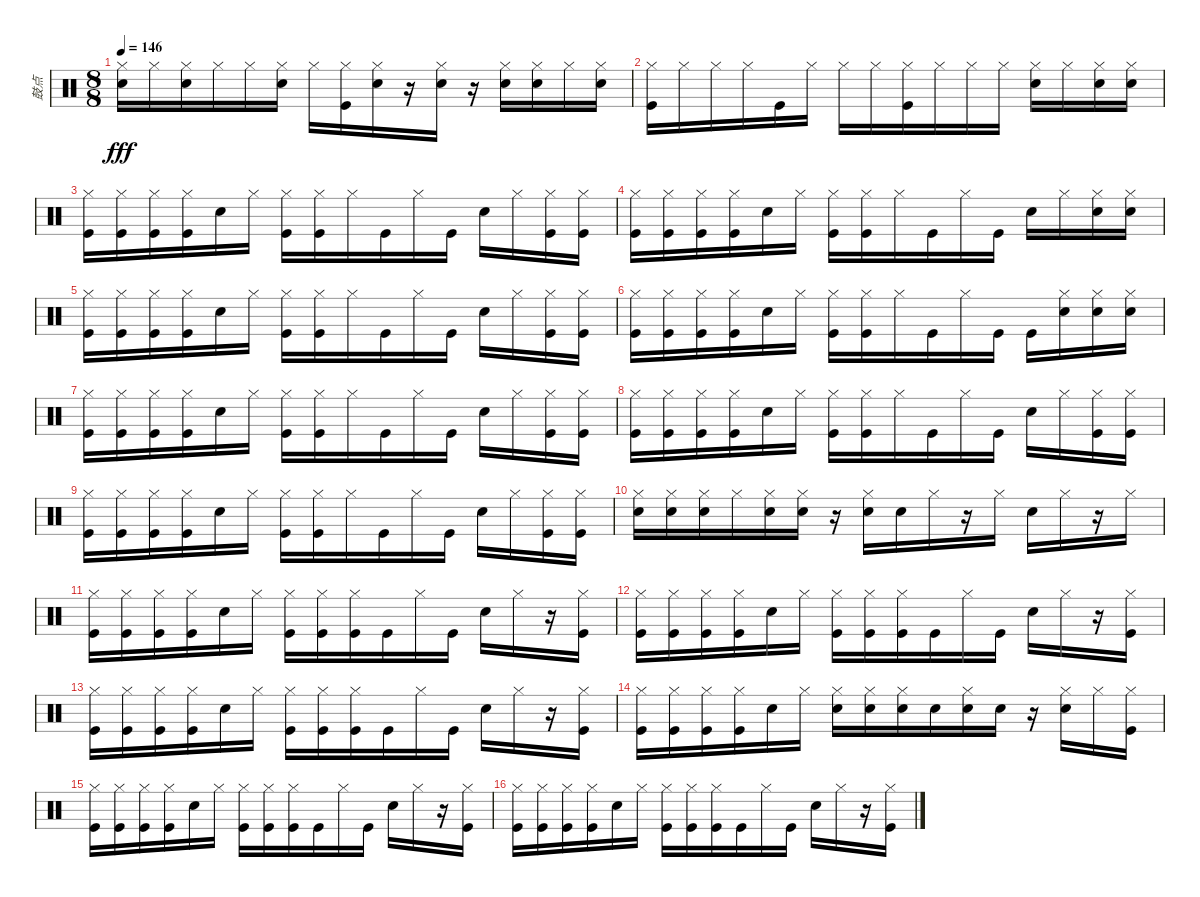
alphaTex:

\track ("鼓点" "鼓点") {instrument percussion}
\staff {score}
\articulation defaults
\ts (8 8)
\tempo 146
\clef neutral
\ks c
("Snare (hit) 2" "Hi-Hat (closed)").16{dy fff} "Hi-Hat (closed)".16 ("Snare (hit) 2" "Hi-Hat (closed)").16 "Hi-Hat (closed)".16 "Hi-Hat (closed)".16 ("Snare (hit) 2" "Hi-Hat (closed)").16 "Hi-Hat (closed)".16 ("Kick (hit)" "Hi-Hat (closed)").16 ("Snare (hit) 2" "Hi-Hat (closed)").16 r.16 ("Snare (hit) 2" "Hi-Hat (closed)").16 r.16 ("Snare (hit) 2" "Hi-Hat (closed)").16 ("Snare (hit) 2" "Hi-Hat (closed)").16 "Hi-Hat (closed)".16 ("Snare (hit) 2" "Hi-Hat (closed)").16 |
("Kick (hit)" "Hi-Hat (closed)").16 "Hi-Hat (closed)".16 "Hi-Hat (closed)".16 "Hi-Hat (closed)".16 "Kick (hit)".16 "Hi-Hat (closed)".16 "Hi-Hat (closed)".16 "Hi-Hat (closed)".16 ("Kick (hit)" "Hi-Hat (closed)").16 "Hi-Hat (closed)".16 "Hi-Hat (closed)".16 "Hi-Hat (closed)".16 ("Snare (hit) 2" "Hi-Hat (closed)").16 "Hi-Hat (closed)".16 ("Snare (hit) 2" "Hi-Hat (closed)").16 ("Snare (hit) 2" "Hi-Hat (closed)").16 |
("Kick (hit)" "Hi-Hat (closed)").16 ("Kick (hit)" "Hi-Hat (closed)").16 ("Kick (hit)" "Hi-Hat (closed)").16 ("Kick (hit)" "Hi-Hat (closed)").16 "Snare (hit) 2".16 "Hi-Hat (closed)".16 ("Kick (hit)" "Hi-Hat (closed)").16 ("Kick (hit)" "Hi-Hat (closed)").16 "Hi-Hat (closed)".16 "Kick (hit)".16 "Hi-Hat (closed)".16 "Kick (hit)".16 "Snare (hit) 2".16 "Hi-Hat (closed)".16 ("Kick (hit)" "Hi-Hat (closed)").16 ("Kick (hit)" "Hi-Hat (closed)").16 |
("Kick (hit)" "Hi-Hat (closed)").16 ("Kick (hit)" "Hi-Hat (closed)").16 ("Kick (hit)" "Hi-Hat (closed)").16 ("Kick (hit)" "Hi-Hat (closed)").16 "Snare (hit) 2".16 "Hi-Hat (closed)".16 ("Kick (hit)" "Hi-Hat (closed)").16 ("Kick (hit)" "Hi-Hat (closed)").16 "Hi-Hat (closed)".16 "Kick (hit)".16 "Hi-Hat (closed)".16 "Kick (hit)".16 "Snare (hit) 2".16 "Hi-Hat (closed)".16 ("Snare (hit) 2" "Hi-Hat (closed)").16 ("Snare (hit) 2" "Hi-Hat (closed)").16 |
("Kick (hit)" "Hi-Hat (closed)").16 ("Kick (hit)" "Hi-Hat (closed)").16 ("Kick (hit)" "Hi-Hat (closed)").16 ("Kick (hit)" "Hi-Hat (closed)").16 "Snare (hit) 2".16 "Hi-Hat (closed)".16 ("Kick (hit)" "Hi-Hat (closed)").16 ("Kick (hit)" "Hi-Hat (closed)").16 "Hi-Hat (closed)".16 "Kick (hit)".16 "Hi-Hat (closed)".16 "Kick (hit)".16 "Snare (hit) 2".16 "Hi-Hat (closed)".16 ("Kick (hit)" "Hi-Hat (closed)").16 ("Kick (hit)" "Hi-Hat (closed)").16 |
("Kick (hit)" "Hi-Hat (closed)").16 ("Kick (hit)" "Hi-Hat (closed)").16 ("Kick (hit)" "Hi-Hat (closed)").16 ("Kick (hit)" "Hi-Hat (closed)").16 "Snare (hit) 2".16 "Hi-Hat (closed)".16 ("Kick (hit)" "Hi-Hat (closed)").16 ("Kick (hit)" "Hi-Hat (closed)").16 "Hi-Hat (closed)".16 "Kick (hit)".16 "Hi-Hat (closed)".16 "Kick (hit)".16 "Kick (hit)".16 ("Snare (hit) 2" "Hi-Hat (closed)").16 ("Snare (hit) 2" "Hi-Hat (closed)").16 ("Snare (hit) 2" "Hi-Hat (closed)").16 |
("Kick (hit)" "Hi-Hat (closed)").16 ("Kick (hit)" "Hi-Hat (closed)").16 ("Kick (hit)" "Hi-Hat (closed)").16 ("Kick (hit)" "Hi-Hat (closed)").16 "Snare (hit) 2".16 "Hi-Hat (closed)".16 ("Kick (hit)" "Hi-Hat (closed)").16 ("Kick (hit)" "Hi-Hat (closed)").16 "Hi-Hat (closed)".16 "Kick (hit)".16 "Hi-Hat (closed)".16 "Kick (hit)".16 "Snare (hit) 2".16 "Hi-Hat (closed)".16 ("Kick (hit)" "Hi-Hat (closed)").16 ("Kick (hit)" "Hi-Hat (closed)").16 |
("Kick (hit)" "Hi-Hat (closed)").16 ("Kick (hit)" "Hi-Hat (closed)").16 ("Kick (hit)" "Hi-Hat (closed)").16 ("Kick (hit)" "Hi-Hat (closed)").16 "Snare (hit) 2".16 "Hi-Hat (closed)".16 ("Kick (hit)" "Hi-Hat (closed)").16 ("Kick (hit)" "Hi-Hat (closed)").16 "Hi-Hat (closed)".16 "Kick (hit)".16 "Hi-Hat (closed)".16 "Kick (hit)".16 "Snare (hit) 2".16 "Hi-Hat (closed)".16 ("Kick (hit)" "Hi-Hat (closed)").16 ("Kick (hit)" "Hi-Hat (closed)").16 |
("Kick (hit)" "Hi-Hat (closed)").16 ("Kick (hit)" "Hi-Hat (closed)").16 ("Kick (hit)" "Hi-Hat (closed)").16 ("Kick (hit)" "Hi-Hat (closed)").16 "Snare (hit) 2".16 "Hi-Hat (closed)".16 ("Kick (hit)" "Hi-Hat (closed)").16 ("Kick (hit)" "Hi-Hat (closed)").16 "Hi-Hat (closed)".16 "Kick (hit)".16 "Hi-Hat (closed)".16 "Kick (hit)".16 "Snare (hit) 2".16 "Hi-Hat (closed)".16 ("Kick (hit)" "Hi-Hat (closed)").16 ("Kick (hit)" "Hi-Hat (closed)").16 |
("Snare (hit) 2" "Hi-Hat (closed)").16 ("Snare (hit) 2" "Hi-Hat (closed)").16 ("Snare (hit) 2" "Hi-Hat (closed)").16 "Hi-Hat (closed)".16 ("Snare (hit) 2" "Hi-Hat (closed)").16 ("Snare (hit) 2" "Hi-Hat (closed)").16 r.16 ("Snare (hit) 2" "Hi-Hat (closed)").16 "Snare (hit) 2".16 "Hi-Hat (closed)".16 r.16 "Hi-Hat (closed)".16 "Snare (hit) 2".16 "Hi-Hat (closed)".16 r.16 "Hi-Hat (closed)".16 |
("Kick (hit)" "Hi-Hat (closed)").16 ("Kick (hit)" "Hi-Hat (closed)").16 ("Kick (hit)" "Hi-Hat (closed)").16 ("Kick (hit)" "Hi-Hat (closed)").16 "Snare (hit) 2".16 "Hi-Hat (closed)".16 ("Kick (hit)" "Hi-Hat (closed)").16 ("Kick (hit)" "Hi-Hat (closed)").16 ("Kick (hit)" "Hi-Hat (closed)").16 "Kick (hit)".16 "Hi-Hat (closed)".16 "Kick (hit)".16 "Snare (hit) 2".16 "Hi-Hat (closed)".16 r.16 ("Kick (hit)" "Hi-Hat (closed)").16 |
("Kick (hit)" "Hi-Hat (closed)").16 ("Kick (hit)" "Hi-Hat (closed)").16 ("Kick (hit)" "Hi-Hat (closed)").16 ("Kick (hit)" "Hi-Hat (closed)").16 "Snare (hit) 2".16 "Hi-Hat (closed)".16 ("Kick (hit)" "Hi-Hat (closed)").16 ("Kick (hit)" "Hi-Hat (closed)").16 ("Kick (hit)" "Hi-Hat (closed)").16 "Kick (hit)".16 "Hi-Hat (closed)".16 "Kick (hit)".16 "Snare (hit) 2".16 "Hi-Hat (closed)".16 r.16 ("Kick (hit)" "Hi-Hat (closed)").16 |
("Kick (hit)" "Hi-Hat (closed)").16 ("Kick (hit)" "Hi-Hat (closed)").16 ("Kick (hit)" "Hi-Hat (closed)").16 ("Kick (hit)" "Hi-Hat (closed)").16 "Snare (hit) 2".16 "Hi-Hat (closed)".16 ("Kick (hit)" "Hi-Hat (closed)").16 ("Kick (hit)" "Hi-Hat (closed)").16 ("Kick (hit)" "Hi-Hat (closed)").16 "Kick (hit)".16 "Hi-Hat (closed)".16 "Kick (hit)".16 "Snare (hit) 2".16 "Hi-Hat (closed)".16 r.16 ("Kick (hit)" "Hi-Hat (closed)").16 |
("Kick (hit)" "Hi-Hat (closed)").16 ("Kick (hit)" "Hi-Hat (closed)").16 ("Kick (hit)" "Hi-Hat (closed)").16 ("Kick (hit)" "Hi-Hat (closed)").16 "Snare (hit) 2".16 "Hi-Hat (closed)".16 ("Snare (hit) 2" "Hi-Hat (closed)").16 ("Snare (hit) 2" "Hi-Hat (closed)").16 ("Snare (hit) 2" "Hi-Hat (closed)").16 "Snare (hit) 2".16 ("Snare (hit) 2" "Hi-Hat (closed)").16 "Snare (hit) 2".16 r.16 ("Snare (hit) 2" "Hi-Hat (closed)").16 "Hi-Hat (closed)".16 ("Kick (hit)" "Hi-Hat (closed)").16 |
("Kick (hit)" "Hi-Hat (closed)").16 ("Kick (hit)" "Hi-Hat (closed)").16 ("Kick (hit)" "Hi-Hat (closed)").16 ("Kick (hit)" "Hi-Hat (closed)").16 "Snare (hit) 2".16 "Hi-Hat (closed)".16 ("Kick (hit)" "Hi-Hat (closed)").16 ("Kick (hit)" "Hi-Hat (closed)").16 ("Kick (hit)" "Hi-Hat (closed)").16 "Kick (hit)".16 "Hi-Hat (closed)".16 "Kick (hit)".16 "Snare (hit) 2".16 "Hi-Hat (closed)".16 r.16 ("Kick (hit)" "Hi-Hat (closed)").16 |
("Kick (hit)" "Hi-Hat (closed)").16 ("Kick (hit)" "Hi-Hat (closed)").16 ("Kick (hit)" "Hi-Hat (closed)").16 ("Kick (hit)" "Hi-Hat (closed)").16 "Snare (hit) 2".16 "Hi-Hat (closed)".16 ("Kick (hit)" "Hi-Hat (closed)").16 ("Kick (hit)" "Hi-Hat (closed)").16 ("Kick (hit)" "Hi-Hat (closed)").16 "Kick (hit)".16 "Hi-Hat (closed)".16 "Kick (hit)".16 "Snare (hit) 2".16 "Hi-Hat (closed)".16 r.16 ("Kick (hit)" "Hi-Hat (closed)").16
